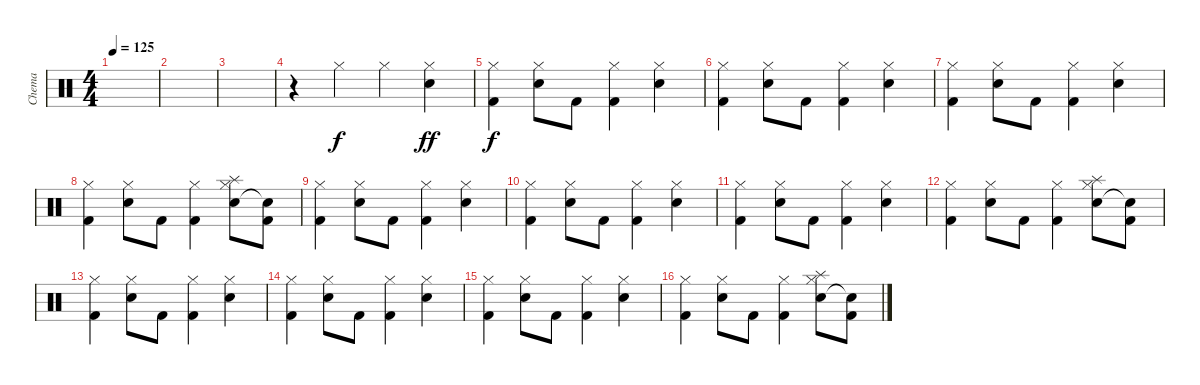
\track ("Chema" "Chema") {instrument percussion}
\staff {score}
\articulation defaults
\ts (4 4)
\tempo 125
\clef neutral
\ks c
|
|
|
r.4 "Hi-Hat (closed)".4 "Hi-Hat (closed)".4 ("Hi-Hat (closed)" "Snare (hit) 2").4{dy ff} |
("Hi-Hat (closed)" "Kick (hit) 2").4{dy f} ("Hi-Hat (closed)" "Snare (hit) 2").8 "Kick (hit) 2".8 ("Hi-Hat (closed)" "Kick (hit) 2").4 ("Hi-Hat (closed)" "Snare (hit) 2").4 |
("Hi-Hat (closed)" "Kick (hit) 2").4 ("Hi-Hat (closed)" "Snare (hit) 2").8 "Kick (hit) 2".8 ("Hi-Hat (closed)" "Kick (hit) 2").4 ("Hi-Hat (closed)" "Snare (hit) 2").4 |
("Hi-Hat (closed)" "Kick (hit) 2").4 ("Hi-Hat (closed)" "Snare (hit) 2").8 "Kick (hit) 2".8 ("Hi-Hat (closed)" "Kick (hit) 2").4 ("Hi-Hat (closed)" "Snare (hit) 2").4 |
("Hi-Hat (closed)" "Kick (hit) 2").4 ("Hi-Hat (closed)" "Snare (hit) 2").8 "Kick (hit) 2".8 ("Hi-Hat (closed)" "Kick (hit) 2").4 ("Hi-Hat (closed)" "Snare (hit) 2" "Splash (hit)").8 ("Kick (hit) 2" "Snare (hit)"{t}).8 |
("Hi-Hat (closed)" "Kick (hit) 2").4 ("Hi-Hat (closed)" "Snare (hit) 2").8 "Kick (hit) 2".8 ("Hi-Hat (closed)" "Kick (hit) 2").4 ("Hi-Hat (closed)" "Snare (hit) 2").4 |
("Hi-Hat (closed)" "Kick (hit) 2").4 ("Hi-Hat (closed)" "Snare (hit) 2").8 "Kick (hit) 2".8 ("Hi-Hat (closed)" "Kick (hit) 2").4 ("Hi-Hat (closed)" "Snare (hit) 2").4 |
("Hi-Hat (closed)" "Kick (hit) 2").4 ("Hi-Hat (closed)" "Snare (hit) 2").8 "Kick (hit) 2".8 ("Hi-Hat (closed)" "Kick (hit) 2").4 ("Hi-Hat (closed)" "Snare (hit) 2").4 |
("Hi-Hat (closed)" "Kick (hit) 2").4 ("Hi-Hat (closed)" "Snare (hit) 2").8 "Kick (hit) 2".8 ("Hi-Hat (closed)" "Kick (hit) 2").4 ("Hi-Hat (closed)" "Snare (hit) 2" "Splash (hit)").8 ("Kick (hit) 2" "Snare (hit)"{t}).8 |
("Hi-Hat (closed)" "Kick (hit) 2").4 ("Hi-Hat (closed)" "Snare (hit) 2").8 "Kick (hit) 2".8 ("Hi-Hat (closed)" "Kick (hit) 2").4 ("Hi-Hat (closed)" "Snare (hit) 2").4 |
("Hi-Hat (closed)" "Kick (hit) 2").4 ("Hi-Hat (closed)" "Snare (hit) 2").8 "Kick (hit) 2".8 ("Hi-Hat (closed)" "Kick (hit) 2").4 ("Hi-Hat (closed)" "Snare (hit) 2").4 |
("Hi-Hat (closed)" "Kick (hit) 2").4 ("Hi-Hat (closed)" "Snare (hit) 2").8 "Kick (hit) 2".8 ("Hi-Hat (closed)" "Kick (hit) 2").4 ("Hi-Hat (closed)" "Snare (hit) 2").4 |
("Hi-Hat (closed)" "Kick (hit) 2").4 ("Hi-Hat (closed)" "Snare (hit) 2").8 "Kick (hit) 2".8 ("Hi-Hat (closed)" "Kick (hit) 2").4 ("Hi-Hat (closed)" "Snare (hit) 2" "Splash (hit)").8 ("Kick (hit) 2" "Snare (hit)"{t}).8
